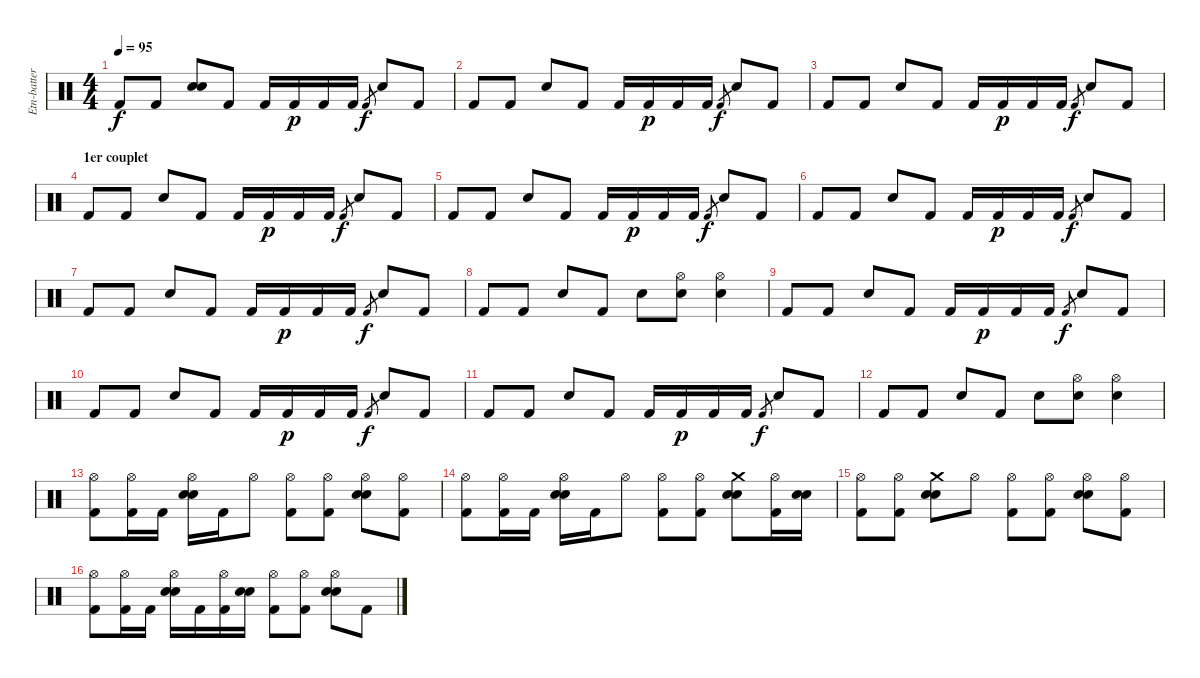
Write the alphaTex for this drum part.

\track ("Etn-batterie" "Etn-batter") {instrument percussion}
\staff {score}
\articulation defaults
\ts (4 4)
\tempo 95
\clef neutral
\ks c "Kick (hit) 2".8{dy f volume 16} "Kick (hit) 2".8
("Electric Snare (hit)" "Electric Snare (hit)").8 "Kick (hit) 2".8 "Kick (hit) 2".16 "Kick (hit) 2".16{dy p} "Kick (hit) 2".16 "Kick (hit) 2".16 "Kick (hit) 2".8{gr dy f} "Electric Snare (hit)".8 "Kick (hit) 2".8 |
"Kick (hit) 2".8{volume 16} "Kick (hit) 2".8 "Electric Snare (hit)".8 "Kick (hit) 2".8 "Kick (hit) 2".16 "Kick (hit) 2".16{dy p} "Kick (hit) 2".16 "Kick (hit) 2".16 "Kick (hit) 2".8{gr dy f} "Electric Snare (hit)".8 "Kick (hit) 2".8 |
"Kick (hit) 2".8{volume 16} "Kick (hit) 2".8 "Electric Snare (hit)".8 "Kick (hit) 2".8 "Kick (hit) 2".16 "Kick (hit) 2".16{dy p} "Kick (hit) 2".16 "Kick (hit) 2".16 "Kick (hit) 2".8{gr dy f} "Electric Snare (hit)".8 "Kick (hit) 2".8 |
\section ("" "1er couplet")
"Kick (hit) 2".8{volume 16} "Kick (hit) 2".8 "Electric Snare (hit)".8 "Kick (hit) 2".8 "Kick (hit) 2".16 "Kick (hit) 2".16{dy p} "Kick (hit) 2".16 "Kick (hit) 2".16 "Kick (hit) 2".8{gr dy f} "Electric Snare (hit)".8 "Kick (hit) 2".8 |
"Kick (hit) 2".8{volume 16} "Kick (hit) 2".8 "Electric Snare (hit)".8 "Kick (hit) 2".8 "Kick (hit) 2".16 "Kick (hit) 2".16{dy p} "Kick (hit) 2".16 "Kick (hit) 2".16 "Kick (hit) 2".8{gr dy f} "Electric Snare (hit)".8 "Kick (hit) 2".8 |
"Kick (hit) 2".8{volume 16} "Kick (hit) 2".8 "Electric Snare (hit)".8 "Kick (hit) 2".8 "Kick (hit) 2".16 "Kick (hit) 2".16{dy p} "Kick (hit) 2".16 "Kick (hit) 2".16 "Kick (hit) 2".8{gr dy f} "Electric Snare (hit)".8 "Kick (hit) 2".8 |
"Kick (hit) 2".8{volume 16} "Kick (hit) 2".8 "Electric Snare (hit)".8 "Kick (hit) 2".8 "Kick (hit) 2".16 "Kick (hit) 2".16{dy p} "Kick (hit) 2".16 "Kick (hit) 2".16 "Kick (hit) 2".8{gr dy f} "Electric Snare (hit)".8 "Kick (hit) 2".8 |
"Kick (hit) 2".8{volume 16} "Kick (hit) 2".8 "Electric Snare (hit)".8 "Kick (hit) 2".8 "Electric Snare (hit)".8 ("Electric Snare (hit)" "Hi-Hat (open)").8 ("Electric Snare (hit)" "Hi-Hat (open)").4 |
"Kick (hit) 2".8{volume 16} "Kick (hit) 2".8 "Electric Snare (hit)".8 "Kick (hit) 2".8 "Kick (hit) 2".16 "Kick (hit) 2".16{dy p} "Kick (hit) 2".16 "Kick (hit) 2".16 "Kick (hit) 2".8{gr dy f} "Electric Snare (hit)".8 "Kick (hit) 2".8 |
"Kick (hit) 2".8{volume 16} "Kick (hit) 2".8 "Electric Snare (hit)".8 "Kick (hit) 2".8 "Kick (hit) 2".16 "Kick (hit) 2".16{dy p} "Kick (hit) 2".16 "Kick (hit) 2".16 "Kick (hit) 2".8{gr dy f} "Electric Snare (hit)".8 "Kick (hit) 2".8 |
"Kick (hit) 2".8{volume 16} "Kick (hit) 2".8 "Electric Snare (hit)".8 "Kick (hit) 2".8 "Kick (hit) 2".16 "Kick (hit) 2".16{dy p} "Kick (hit) 2".16 "Kick (hit) 2".16 "Kick (hit) 2".8{gr dy f} "Electric Snare (hit)".8 "Kick (hit) 2".8 |
"Kick (hit) 2".8{volume 16} "Kick (hit) 2".8 "Electric Snare (hit)".8 "Kick (hit) 2".8 "Electric Snare (hit)".8 ("Electric Snare (hit)" "Hi-Hat (open)").8 ("Electric Snare (hit)" "Hi-Hat (open)").4 |
("Kick (hit) 2" "Hi-Hat (open)").8 ("Kick (hit) 2" "Hi-Hat (open)").16 "Kick (hit) 2".16 ("Electric Snare (hit)" "Electric Snare (hit)" "Hi-Hat (open)").16 "Kick (hit) 2".16 "Hi-Hat (open)".8 ("Kick (hit) 2" "Hi-Hat (open)").8 ("Kick (hit) 2" "Hi-Hat (open)").8 ("Electric Snare (hit)" "Electric Snare (hit)" "Hi-Hat (open)").8 ("Kick (hit) 2" "Hi-Hat (open)").8 |
("Kick (hit) 2" "Hi-Hat (open)").8 ("Kick (hit) 2" "Hi-Hat (open)").16 "Kick (hit) 2".16 ("Electric Snare (hit)" "Electric Snare (hit)" "Hi-Hat (open)").16 "Kick (hit) 2".16 "Hi-Hat (open)".8 ("Kick (hit) 2" "Hi-Hat (open)").8 ("Kick (hit) 2" "Hi-Hat (open)").8 ("Electric Snare (hit)" "Electric Snare (hit)" "Crash medium (hit)").8 ("Kick (hit) 2" "Hi-Hat (open)").16 ("Electric Snare (hit)" "Electric Snare (hit)").16 |
("Kick (hit) 2" "Hi-Hat (open)").8 ("Kick (hit) 2" "Hi-Hat (open)").8 ("Electric Snare (hit)" "Electric Snare (hit)" "Crash medium (hit)").8 "Hi-Hat (open)".8 ("Kick (hit) 2" "Hi-Hat (open)").8 ("Kick (hit) 2" "Hi-Hat (open)").8 ("Electric Snare (hit)" "Electric Snare (hit)" "Hi-Hat (open)").8 ("Kick (hit) 2" "Hi-Hat (open)").8 |
("Kick (hit) 2" "Hi-Hat (open)").8 ("Kick (hit) 2" "Hi-Hat (open)").16 "Kick (hit) 2".16 ("Electric Snare (hit)" "Electric Snare (hit)" "Hi-Hat (open)").16 "Kick (hit) 2".16 ("Kick (hit) 2" "Hi-Hat (open)").16 ("Electric Snare (hit)" "Electric Snare (hit)").16 ("Kick (hit) 2" "Hi-Hat (open)").8 ("Kick (hit) 2" "Hi-Hat (open)").8 ("Electric Snare (hit)" "Electric Snare (hit)" "Hi-Hat (open)").8 "Kick (hit) 2".8
